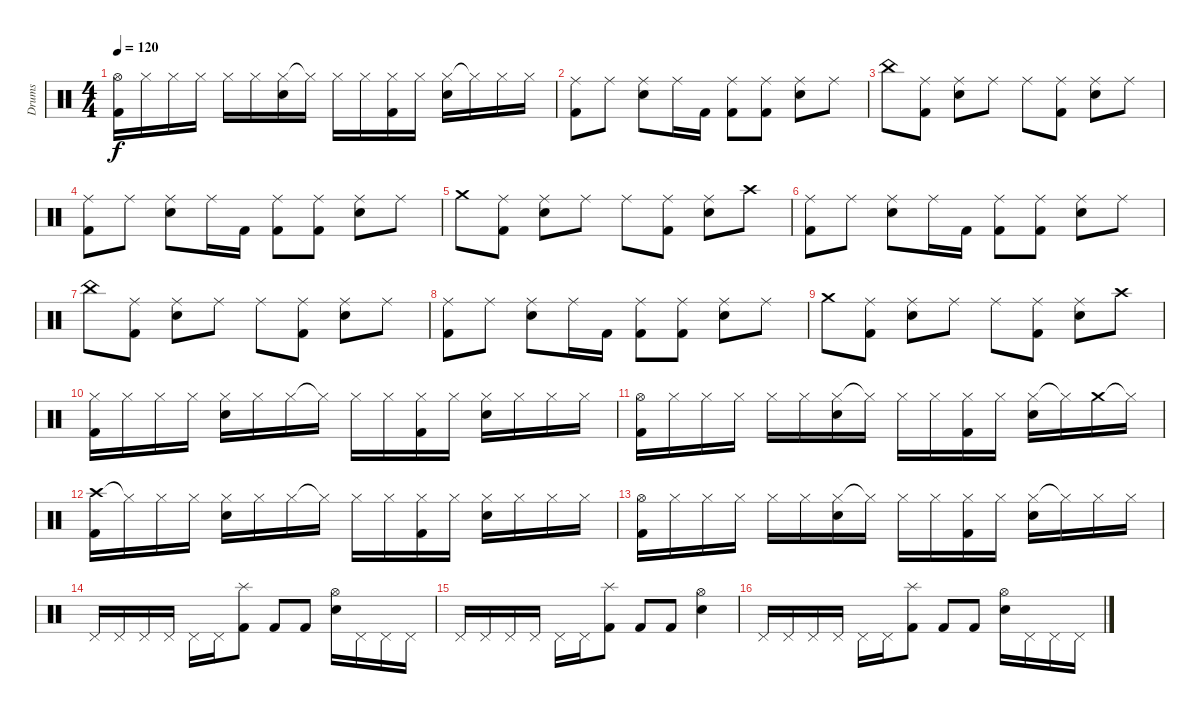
\track ("Drums" "Drums") {instrument percussion}
\staff {score}
\articulation defaults
\ts (4 4)
\tempo 120
\clef neutral
\ks c
("Hi-Hat (open)" "Kick (hit) 2").16{dy f} "Hi-Hat (closed)".16 "Hi-Hat (closed)".16 "Hi-Hat (closed)".16 "Hi-Hat (closed)".16 "Hi-Hat (closed)".16 ("Hi-Hat (closed)" "Electric Snare (hit)").16 "Hi-Hat (closed)"{t}.16 "Hi-Hat (closed)".16 "Hi-Hat (closed)".16 ("Hi-Hat (closed)" "Kick (hit) 2").16 "Hi-Hat (closed)".16 ("Hi-Hat (closed)" "Electric Snare (hit)").16 "Hi-Hat (closed)"{t}.16 "Hi-Hat (closed)".16 "Hi-Hat (closed)".16 |
("Ride (middle)" "Kick (hit) 2").8 "Ride (middle)".8 ("Ride (middle)" "Electric Snare (hit)").8 "Ride (middle)".16 "Kick (hit) 2".16 ("Ride (middle)" "Kick (hit) 2").8 ("Ride (middle)" "Kick (hit) 2").8 ("Ride (middle)" "Electric Snare (hit)").8 "Ride (middle)".8 |
"China (hit)".8 ("Ride (middle)" "Kick (hit) 2").8 ("Ride (middle)" "Electric Snare (hit)").8 "Ride (middle)".8 "Ride (middle)".8 ("Ride (middle)" "Kick (hit) 2").8 ("Ride (middle)" "Electric Snare (hit)").8 "Ride (middle)".8 |
("Ride (middle)" "Kick (hit) 2").8 "Ride (middle)".8 ("Ride (middle)" "Electric Snare (hit)").8 "Ride (middle)".16 "Kick (hit) 2".16 ("Ride (middle)" "Kick (hit) 2").8 ("Ride (middle)" "Kick (hit) 2").8 ("Ride (middle)" "Electric Snare (hit)").8 "Ride (middle)".8 |
"Crash medium (hit)".8 ("Ride (middle)" "Kick (hit) 2").8 ("Ride (middle)" "Electric Snare (hit)").8 "Ride (middle)".8 "Ride (middle)".8 ("Ride (middle)" "Kick (hit) 2").8 ("Ride (middle)" "Electric Snare (hit)").8 "Crash high (hit)".8 |
("Ride (middle)" "Kick (hit) 2").8 "Ride (middle)".8 ("Ride (middle)" "Electric Snare (hit)").8 "Ride (middle)".16 "Kick (hit) 2".16 ("Ride (middle)" "Kick (hit) 2").8 ("Ride (middle)" "Kick (hit) 2").8 ("Ride (middle)" "Electric Snare (hit)").8 "Ride (middle)".8 |
"China (hit)".8 ("Ride (middle)" "Kick (hit) 2").8 ("Ride (middle)" "Electric Snare (hit)").8 "Ride (middle)".8 "Ride (middle)".8 ("Ride (middle)" "Kick (hit) 2").8 ("Ride (middle)" "Electric Snare (hit)").8 "Ride (middle)".8 |
("Ride (middle)" "Kick (hit) 2").8 "Ride (middle)".8 ("Ride (middle)" "Electric Snare (hit)").8 "Ride (middle)".16 "Kick (hit) 2".16 ("Ride (middle)" "Kick (hit) 2").8 ("Ride (middle)" "Kick (hit) 2").8 ("Ride (middle)" "Electric Snare (hit)").8 "Ride (middle)".8 |
"Crash medium (hit)".8 ("Ride (middle)" "Kick (hit) 2").8 ("Ride (middle)" "Electric Snare (hit)").8 "Ride (middle)".8 "Ride (middle)".8 ("Ride (middle)" "Kick (hit) 2").8 ("Ride (middle)" "Electric Snare (hit)").8 "Crash high (hit)".8 |
("Hi-Hat (closed)" "Kick (hit) 2").16 "Hi-Hat (closed)".16 "Hi-Hat (closed)".16 "Hi-Hat (closed)".16 ("Hi-Hat (closed)" "Electric Snare (hit)").16 "Hi-Hat (closed)".16 "Hi-Hat (closed)".16 "Hi-Hat (closed)"{t}.16 "Hi-Hat (closed)".16 "Hi-Hat (closed)".16 ("Hi-Hat (closed)" "Kick (hit) 2").16 "Hi-Hat (closed)".16 ("Hi-Hat (closed)" "Electric Snare (hit)").16 "Hi-Hat (closed)".16 "Hi-Hat (closed)".16 "Hi-Hat (closed)".16 |
("Hi-Hat (open)" "Kick (hit) 2").16 "Hi-Hat (closed)".16 "Hi-Hat (closed)".16 "Hi-Hat (closed)".16 "Hi-Hat (closed)".16 "Hi-Hat (closed)".16 ("Hi-Hat (closed)" "Electric Snare (hit)").16 "Hi-Hat (closed)"{t}.16 "Hi-Hat (closed)".16 "Hi-Hat (closed)".16 ("Hi-Hat (closed)" "Kick (hit) 2").16 "Hi-Hat (closed)".16 ("Hi-Hat (closed)" "Electric Snare (hit)").16 "Hi-Hat (closed)"{t}.16 "Crash medium (hit)".16 "Hi-Hat (closed)"{t}.16 |
("Crash high (hit)" "Kick (hit) 2").16 "Hi-Hat (closed)"{t}.16 "Hi-Hat (closed)".16 "Hi-Hat (closed)".16 ("Hi-Hat (closed)" "Electric Snare (hit)").16 "Hi-Hat (closed)".16 "Hi-Hat (closed)".16 "Hi-Hat (closed)"{t}.16 "Hi-Hat (closed)".16 "Hi-Hat (closed)".16 ("Hi-Hat (closed)" "Kick (hit) 2").16 "Hi-Hat (closed)".16 ("Hi-Hat (closed)" "Electric Snare (hit)").16 "Hi-Hat (closed)".16 "Hi-Hat (closed)".16 "Hi-Hat (closed)".16 |
("Hi-Hat (open)" "Kick (hit) 2").16 "Hi-Hat (closed)".16 "Hi-Hat (closed)".16 "Hi-Hat (closed)".16 "Hi-Hat (closed)".16 "Hi-Hat (closed)".16 ("Hi-Hat (closed)" "Electric Snare (hit)").16 "Hi-Hat (closed)"{t}.16 "Hi-Hat (closed)".16 "Hi-Hat (closed)".16 ("Hi-Hat (closed)" "Kick (hit) 2").16 "Hi-Hat (closed)".16 ("Hi-Hat (closed)" "Electric Snare (hit)").16 "Hi-Hat (closed)"{t}.16 "Hi-Hat (closed)".16 "Hi-Hat (closed)".16 |
"Pedal Hi-Hat (hit)".16 "Pedal Hi-Hat (hit)".16 "Pedal Hi-Hat (hit)".16 "Pedal Hi-Hat (hit)".16 "Pedal Hi-Hat (hit)".16 "Pedal Hi-Hat (hit)".16 ("Splash (hit)" "Kick (hit) 2").8 "Kick (hit) 2".8 "Kick (hit) 2".8 ("Hi-Hat (open)" "Electric Snare (hit)").16 "Pedal Hi-Hat (hit)".16 "Pedal Hi-Hat (hit)".16 "Pedal Hi-Hat (hit)".16 |
"Pedal Hi-Hat (hit)".16 "Pedal Hi-Hat (hit)".16 "Pedal Hi-Hat (hit)".16 "Pedal Hi-Hat (hit)".16 "Pedal Hi-Hat (hit)".16 "Pedal Hi-Hat (hit)".16 ("Splash (hit)" "Kick (hit) 2").8 "Kick (hit) 2".8 "Kick (hit) 2".8 ("Hi-Hat (open)" "Electric Snare (hit)").4 |
"Pedal Hi-Hat (hit)".16 "Pedal Hi-Hat (hit)".16 "Pedal Hi-Hat (hit)".16 "Pedal Hi-Hat (hit)".16 "Pedal Hi-Hat (hit)".16 "Pedal Hi-Hat (hit)".16 ("Splash (hit)" "Kick (hit) 2").8 "Kick (hit) 2".8 "Kick (hit) 2".8 ("Hi-Hat (open)" "Electric Snare (hit)").16 "Pedal Hi-Hat (hit)".16 "Pedal Hi-Hat (hit)".16 "Pedal Hi-Hat (hit)".16
